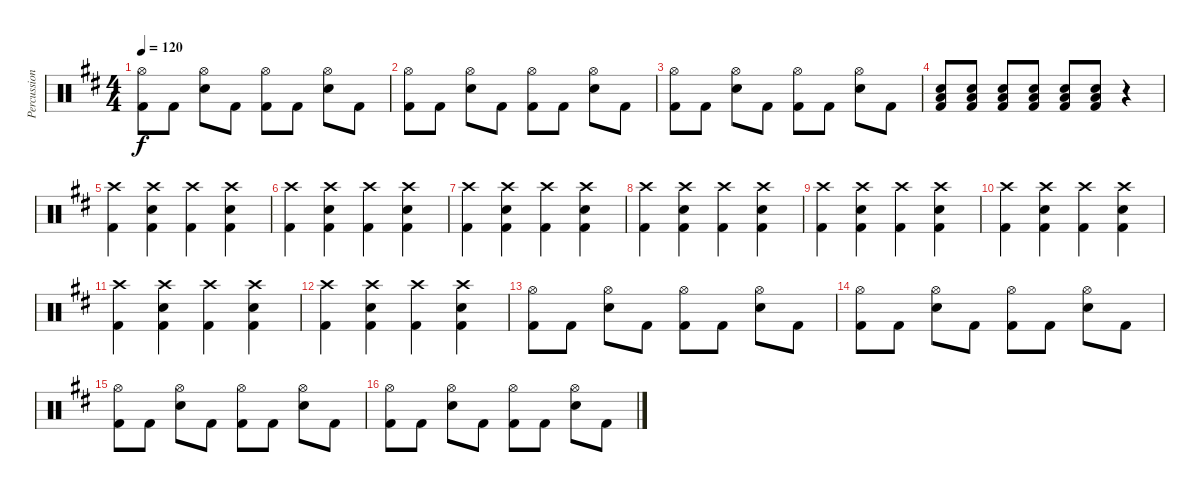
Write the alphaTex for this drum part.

\track ("Percussion" "Percussion") {instrument percussion}
\staff {score}
\articulation defaults
\ts (4 4)
\tempo 120
\clef neutral
\ks d
("Hi-Hat (open)" "Kick (hit) 2").8{dy f} "Kick (hit) 2".8 ("Hi-Hat (open)" "Snare (hit) 2").8 "Kick (hit) 2".8 ("Hi-Hat (open)" "Kick (hit) 2").8 "Kick (hit) 2".8 ("Hi-Hat (open)" "Snare (hit) 2").8 "Kick (hit) 2".8 |
("Hi-Hat (open)" "Kick (hit) 2").8 "Kick (hit) 2".8 ("Hi-Hat (open)" "Snare (hit) 2").8 "Kick (hit) 2".8 ("Hi-Hat (open)" "Kick (hit) 2").8 "Kick (hit) 2".8 ("Hi-Hat (open)" "Snare (hit) 2").8 "Kick (hit) 2".8 |
("Hi-Hat (open)" "Kick (hit) 2").8 "Kick (hit) 2".8 ("Hi-Hat (open)" "Snare (hit) 2").8 "Kick (hit) 2".8 ("Hi-Hat (open)" "Kick (hit) 2").8 "Kick (hit) 2".8 ("Hi-Hat (open)" "Snare (hit) 2").8 "Kick (hit) 2".8 |
("Low Floor Tom (hit)" "Snare (hit) 2" "Kick (hit) 2").8 ("Low Floor Tom (hit)" "Snare (hit) 2" "Kick (hit) 2").8 ("Low Floor Tom (hit)" "Snare (hit) 2" "Kick (hit) 2").8 ("Low Floor Tom (hit)" "Snare (hit) 2" "Kick (hit) 2").8 ("Low Floor Tom (hit)" "Snare (hit) 2" "Kick (hit) 2").8 ("Low Floor Tom (hit)" "Snare (hit) 2" "Kick (hit) 2").8 r.4 |
("Crash high (hit)" "Kick (hit) 2").4 ("Crash high (hit)" "Snare (hit) 2" "Kick (hit) 2").4 ("Crash high (hit)" "Kick (hit) 2").4 ("Crash high (hit)" "Snare (hit) 2" "Kick (hit) 2").4 |
("Crash high (hit)" "Kick (hit) 2").4 ("Crash high (hit)" "Snare (hit) 2" "Kick (hit) 2").4 ("Crash high (hit)" "Kick (hit) 2").4 ("Crash high (hit)" "Snare (hit) 2" "Kick (hit) 2").4 |
("Crash high (hit)" "Kick (hit) 2").4 ("Crash high (hit)" "Snare (hit) 2" "Kick (hit) 2").4 ("Crash high (hit)" "Kick (hit) 2").4 ("Crash high (hit)" "Snare (hit) 2" "Kick (hit) 2").4 |
("Crash high (hit)" "Kick (hit) 2").4 ("Crash high (hit)" "Snare (hit) 2" "Kick (hit) 2").4 ("Crash high (hit)" "Kick (hit) 2").4 ("Crash high (hit)" "Snare (hit) 2" "Kick (hit) 2").4 |
("Crash high (hit)" "Kick (hit) 2").4 ("Crash high (hit)" "Snare (hit) 2" "Kick (hit) 2").4 ("Crash high (hit)" "Kick (hit) 2").4 ("Crash high (hit)" "Snare (hit) 2" "Kick (hit) 2").4 |
("Crash high (hit)" "Kick (hit) 2").4 ("Crash high (hit)" "Snare (hit) 2" "Kick (hit) 2").4 ("Crash high (hit)" "Kick (hit) 2").4 ("Crash high (hit)" "Snare (hit) 2" "Kick (hit) 2").4 |
("Crash high (hit)" "Kick (hit) 2").4 ("Crash high (hit)" "Snare (hit) 2" "Kick (hit) 2").4 ("Crash high (hit)" "Kick (hit) 2").4 ("Crash high (hit)" "Snare (hit) 2" "Kick (hit) 2").4 |
("Crash high (hit)" "Kick (hit) 2").4 ("Crash high (hit)" "Snare (hit) 2" "Kick (hit) 2").4 ("Crash high (hit)" "Kick (hit) 2").4 ("Crash high (hit)" "Snare (hit) 2" "Kick (hit) 2").4 |
("Hi-Hat (open)" "Kick (hit) 2").8 "Kick (hit) 2".8 ("Hi-Hat (open)" "Snare (hit) 2").8 "Kick (hit) 2".8 ("Hi-Hat (open)" "Kick (hit) 2").8 "Kick (hit) 2".8 ("Hi-Hat (open)" "Snare (hit) 2").8 "Kick (hit) 2".8 |
("Hi-Hat (open)" "Kick (hit) 2").8 "Kick (hit) 2".8 ("Hi-Hat (open)" "Snare (hit) 2").8 "Kick (hit) 2".8 ("Hi-Hat (open)" "Kick (hit) 2").8 "Kick (hit) 2".8 ("Hi-Hat (open)" "Snare (hit) 2").8 "Kick (hit) 2".8 |
("Hi-Hat (open)" "Kick (hit) 2").8 "Kick (hit) 2".8 ("Hi-Hat (open)" "Snare (hit) 2").8 "Kick (hit) 2".8 ("Hi-Hat (open)" "Kick (hit) 2").8 "Kick (hit) 2".8 ("Hi-Hat (open)" "Snare (hit) 2").8 "Kick (hit) 2".8 |
("Hi-Hat (open)" "Kick (hit) 2").8 "Kick (hit) 2".8 ("Hi-Hat (open)" "Snare (hit) 2").8 "Kick (hit) 2".8 ("Hi-Hat (open)" "Kick (hit) 2").8 "Kick (hit) 2".8 ("Hi-Hat (open)" "Snare (hit) 2").8 "Kick (hit) 2".8
